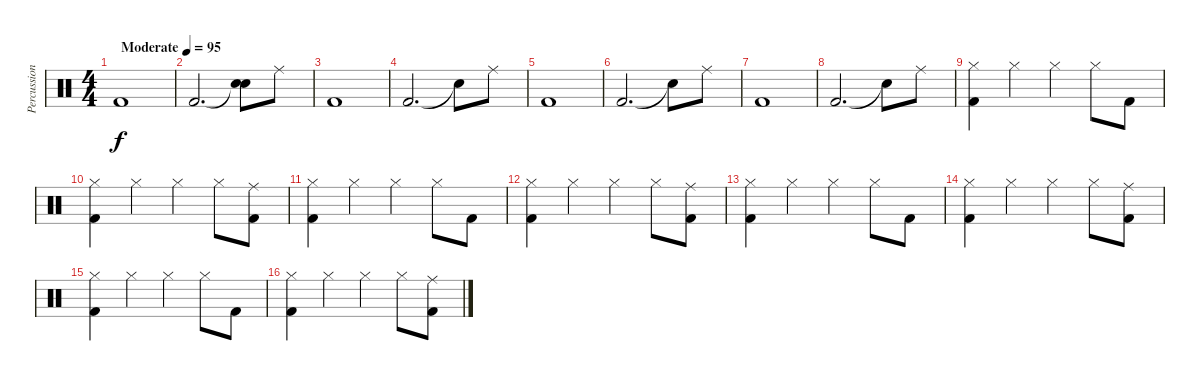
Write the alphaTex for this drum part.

\track ("Percussion" "Percussion") {instrument percussion}
\staff {score}
\articulation defaults
\ts (4 4)
\tempo (95 "Moderate")
\clef neutral
\ks c "Kick (hit) 2".1{dy f}
|
"Kick (hit) 2".2{d} ("Snare (hit)"{t} "Snare (hit)").8 "Ride (middle)".8 |
"Kick (hit) 2".1 |
"Kick (hit) 2".2{d} "Snare (hit)"{t}.8 "Ride (middle)".8 |
"Kick (hit) 2".1 |
"Kick (hit) 2".2{d} "Snare (hit)"{t}.8 "Ride (middle)".8 |
"Kick (hit) 2".1 |
"Kick (hit) 2".2{d} "Snare (hit)"{t}.8 "Ride (middle)".8 |
("Hi-Hat (closed)" "Kick (hit) 2").4 "Hi-Hat (closed)".4 "Hi-Hat (closed)".4 "Hi-Hat (closed)".8 "Kick (hit) 2".8 |
("Hi-Hat (closed)" "Kick (hit) 2").4 "Hi-Hat (closed)".4 "Hi-Hat (closed)".4 "Hi-Hat (closed)".8 ("Ride (middle)" "Kick (hit) 2").8 |
("Hi-Hat (closed)" "Kick (hit) 2").4 "Hi-Hat (closed)".4 "Hi-Hat (closed)".4 "Hi-Hat (closed)".8 "Kick (hit) 2".8 |
("Hi-Hat (closed)" "Kick (hit) 2").4 "Hi-Hat (closed)".4 "Hi-Hat (closed)".4 "Hi-Hat (closed)".8 ("Ride (middle)" "Kick (hit) 2").8 |
("Hi-Hat (closed)" "Kick (hit) 2").4 "Hi-Hat (closed)".4 "Hi-Hat (closed)".4 "Hi-Hat (closed)".8 "Kick (hit) 2".8 |
("Hi-Hat (closed)" "Kick (hit) 2").4 "Hi-Hat (closed)".4 "Hi-Hat (closed)".4 "Hi-Hat (closed)".8 ("Ride (middle)" "Kick (hit) 2").8 |
("Hi-Hat (closed)" "Kick (hit) 2").4 "Hi-Hat (closed)".4 "Hi-Hat (closed)".4 "Hi-Hat (closed)".8 "Kick (hit) 2".8 |
("Hi-Hat (closed)" "Kick (hit) 2").4 "Hi-Hat (closed)".4 "Hi-Hat (closed)".4 "Hi-Hat (closed)".8 ("Ride (middle)" "Kick (hit) 2").8
